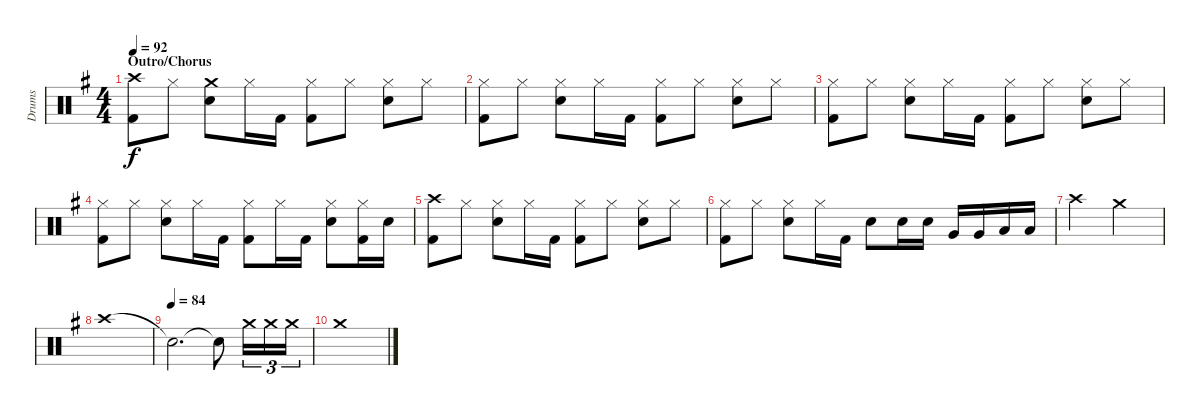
\track ("Drums" "Drums") {instrument percussion}
\staff {score}
\articulation defaults
\ts (4 4)
\section ("" "Outro/Chorus")
\tempo 92
\clef neutral
\ks eminor
("Crash high (hit)" "Kick (hit) 2").8{dy f} "Hi-Hat (closed)".8 ("Crash medium (hit)" "Electric Snare (hit)").8 "Hi-Hat (closed)".16 "Kick (hit) 2".16 ("Hi-Hat (closed)" "Kick (hit) 2").8 "Hi-Hat (closed)".8 ("Hi-Hat (closed)" "Electric Snare (hit)").8 "Hi-Hat (closed)".8 |
("Hi-Hat (closed)" "Kick (hit) 2").8 "Hi-Hat (closed)".8 ("Hi-Hat (closed)" "Electric Snare (hit)").8 "Hi-Hat (closed)".16 "Kick (hit) 2".16 ("Hi-Hat (closed)" "Kick (hit) 2").8 "Hi-Hat (closed)".8 ("Hi-Hat (closed)" "Electric Snare (hit)").8 "Hi-Hat (closed)".8 |
("Hi-Hat (closed)" "Kick (hit) 2").8 "Hi-Hat (closed)".8 ("Hi-Hat (closed)" "Electric Snare (hit)").8 "Hi-Hat (closed)".16 "Kick (hit) 2".16 ("Hi-Hat (closed)" "Kick (hit) 2").8 "Hi-Hat (closed)".8 ("Hi-Hat (closed)" "Electric Snare (hit)").8 "Hi-Hat (closed)".8 |
("Hi-Hat (closed)" "Kick (hit) 2").8 "Hi-Hat (closed)".8 ("Hi-Hat (closed)" "Electric Snare (hit)").8 "Hi-Hat (closed)".16 "Kick (hit) 2".16 ("Hi-Hat (closed)" "Kick (hit) 2").8 "Hi-Hat (closed)".16 "Kick (hit) 2".16 ("Hi-Hat (closed)" "Electric Snare (hit)").8 ("Hi-Hat (closed)" "Kick (hit) 2").16 "Electric Snare (hit)".16 |
("Crash high (hit)" "Kick (hit) 2").8 "Hi-Hat (closed)".8 ("Hi-Hat (closed)" "Electric Snare (hit)").8 "Hi-Hat (closed)".16 "Kick (hit) 2".16 ("Hi-Hat (closed)" "Kick (hit) 2").8 "Hi-Hat (closed)".8 ("Hi-Hat (closed)" "Electric Snare (hit)").8 "Hi-Hat (closed)".8 |
("Hi-Hat (closed)" "Kick (hit) 2").8 "Hi-Hat (closed)".8 ("Hi-Hat (closed)" "Electric Snare (hit)").8 "Hi-Hat (closed)".16 "Kick (hit) 2".16 "Electric Snare (hit)".8 "Electric Snare (hit)".16 "Electric Snare (hit)".16 "Very Low Tom (hit)".16 "Very Low Tom (hit)".16 "Low Floor Tom (hit)".16 "Low Floor Tom (hit)".16 |
"Crash high (hit)".2 "Crash medium (hit)".2 |
"Crash high (hit)".1 |
\tempo (84)
"Snare (hit)"{t}.2{d} "Snare (hit)"{t}.8 "Crash medium (hit)".16{tu (3 2)} "Crash medium (hit)".16{tu (3 2)} "Crash medium (hit)".16{tu (3 2)} |
"Crash medium (hit)".1
